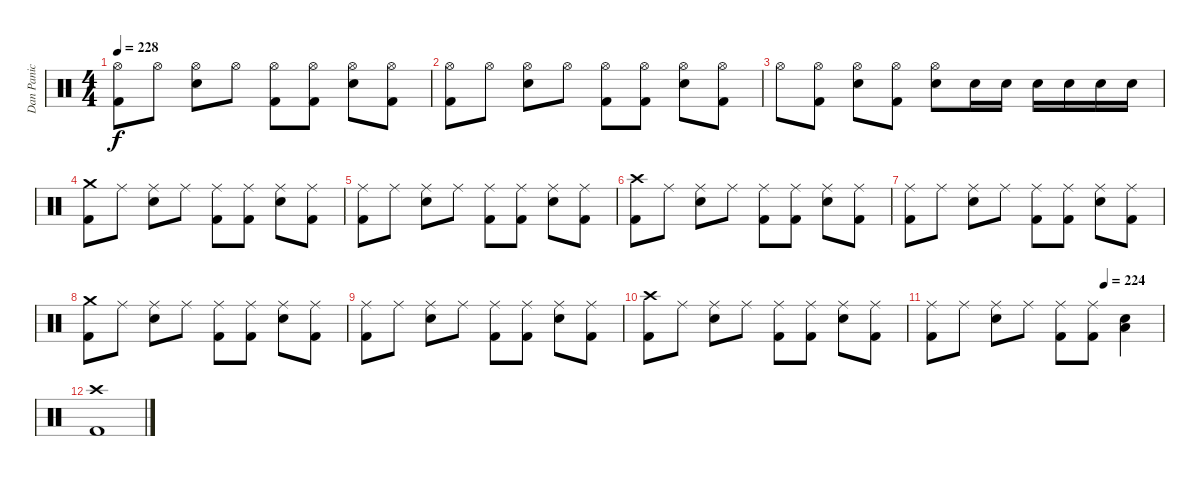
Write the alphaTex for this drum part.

\track ("Dan Panic" "Dan Panic") {instrument percussion}
\staff {score}
\articulation defaults
\ts (4 4)
\tempo 228
\clef neutral
\ks c
("Hi-Hat (open)" "Kick (hit) 2").8{dy f} "Hi-Hat (open)".8 ("Hi-Hat (open)" "Electric Snare (hit)").8 "Hi-Hat (open)".8 ("Hi-Hat (open)" "Kick (hit) 2").8 ("Hi-Hat (open)" "Kick (hit) 2").8 ("Hi-Hat (open)" "Electric Snare (hit)").8 ("Hi-Hat (open)" "Kick (hit) 2").8 |
("Hi-Hat (open)" "Kick (hit) 2").8 "Hi-Hat (open)".8 ("Hi-Hat (open)" "Electric Snare (hit)").8 "Hi-Hat (open)".8 ("Hi-Hat (open)" "Kick (hit) 2").8 ("Hi-Hat (open)" "Kick (hit) 2").8 ("Hi-Hat (open)" "Electric Snare (hit)").8 ("Hi-Hat (open)" "Kick (hit) 2").8 |
"Hi-Hat (open)".8 ("Hi-Hat (open)" "Kick (hit) 2").8 ("Hi-Hat (open)" "Electric Snare (hit)").8 ("Hi-Hat (open)" "Kick (hit) 2").8 ("Hi-Hat (open)" "Electric Snare (hit)").8 "Electric Snare (hit)".16 "Electric Snare (hit)".16 "Electric Snare (hit)".16 "Electric Snare (hit)".16 "Electric Snare (hit)".16 "Electric Snare (hit)".16 |
("Crash medium (hit)" "Kick (hit) 2").8 "Ride (middle)".8 ("Ride (middle)" "Electric Snare (hit)").8 "Ride (middle)".8 ("Ride (middle)" "Kick (hit) 2").8 ("Ride (middle)" "Kick (hit) 2").8 ("Ride (middle)" "Electric Snare (hit)").8 ("Ride (middle)" "Kick (hit) 2").8 |
("Ride (middle)" "Kick (hit) 2").8 "Ride (middle)".8 ("Ride (middle)" "Electric Snare (hit)").8 "Ride (middle)".8 ("Ride (middle)" "Kick (hit) 2").8 ("Ride (middle)" "Kick (hit) 2").8 ("Ride (middle)" "Electric Snare (hit)").8 ("Ride (middle)" "Kick (hit) 2").8 |
("Crash high (hit)" "Kick (hit) 2").8 "Ride (middle)".8 ("Ride (middle)" "Electric Snare (hit)").8 "Ride (middle)".8 ("Ride (middle)" "Kick (hit) 2").8 ("Ride (middle)" "Kick (hit) 2").8 ("Ride (middle)" "Electric Snare (hit)").8 ("Ride (middle)" "Kick (hit) 2").8 |
("Ride (middle)" "Kick (hit) 2").8 "Ride (middle)".8 ("Ride (middle)" "Electric Snare (hit)").8 "Ride (middle)".8 ("Ride (middle)" "Kick (hit) 2").8 ("Ride (middle)" "Kick (hit) 2").8 ("Ride (middle)" "Electric Snare (hit)").8 ("Ride (middle)" "Kick (hit) 2").8 |
("Crash medium (hit)" "Kick (hit) 2").8 "Ride (middle)".8 ("Ride (middle)" "Electric Snare (hit)").8 "Ride (middle)".8 ("Ride (middle)" "Kick (hit) 2").8 ("Ride (middle)" "Kick (hit) 2").8 ("Ride (middle)" "Electric Snare (hit)").8 ("Ride (middle)" "Kick (hit) 2").8 |
("Ride (middle)" "Kick (hit) 2").8 "Ride (middle)".8 ("Ride (middle)" "Electric Snare (hit)").8 "Ride (middle)".8 ("Ride (middle)" "Kick (hit) 2").8 ("Ride (middle)" "Kick (hit) 2").8 ("Ride (middle)" "Electric Snare (hit)").8 ("Ride (middle)" "Kick (hit) 2").8 |
("Crash high (hit)" "Kick (hit) 2").8 "Ride (middle)".8 ("Ride (middle)" "Electric Snare (hit)").8 "Ride (middle)".8 ("Ride (middle)" "Kick (hit) 2").8 ("Ride (middle)" "Kick (hit) 2").8 ("Ride (middle)" "Electric Snare (hit)").8 ("Ride (middle)" "Kick (hit) 2").8 |
\tempo (224 0.75)
("Ride (middle)" "Kick (hit) 2").8 "Ride (middle)".8 ("Ride (middle)" "Electric Snare (hit)").8 "Ride (middle)".8 ("Ride (middle)" "Kick (hit) 2").8 ("Ride (middle)" "Kick (hit) 2").8 ("Electric Snare (hit)" "Low Floor Tom (hit)").4 |
("Crash high (hit)" "Kick (hit) 2").1
